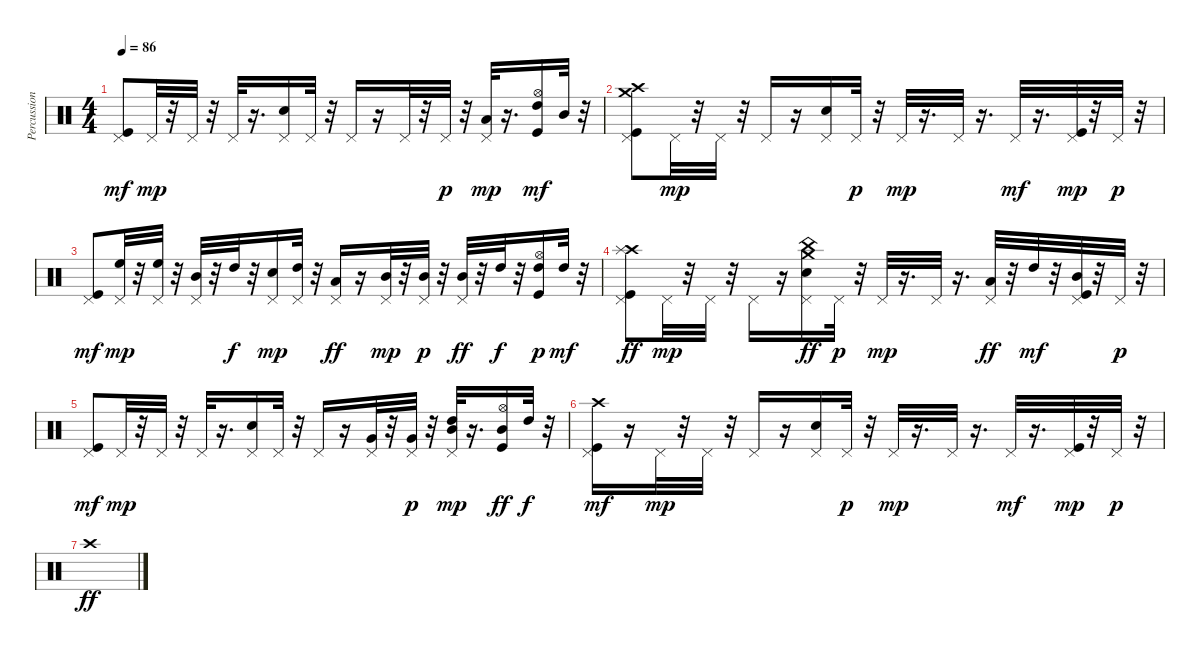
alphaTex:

\track ("Percussions" "Percussion") {instrument percussion}
\staff {score}
\articulation defaults
\ts (4 4)
\tempo 86
\clef neutral
\ks c
("Kick (hit)" "Pedal Hi-Hat (hit)").8{dy mf} "Pedal Hi-Hat (hit)".32{dy mp} r.32 "Pedal Hi-Hat (hit)".32 r.32 "Pedal Hi-Hat (hit)".32 r.16{d} ("Electric Snare (hit)" "Pedal Hi-Hat (hit)").16 "Pedal Hi-Hat (hit)".32 r.32 "Pedal Hi-Hat (hit)".16 r.16 "Pedal Hi-Hat (hit)".32 r.32 "Pedal Hi-Hat (hit)".32{dy p} r.32 ("Pedal Hi-Hat (hit)" "Low Tom (hit)").32{dy mp} r.16{d} ("Kick (hit)" "Hi-Hat (open)" "High Tom (hit)").16{dy mf} "Mid Tom (hit)".32 r.32 |
("Kick (hit)" "Pedal Hi-Hat (hit)" "Crash high (hit)" "Crash medium (hit)").8 "Pedal Hi-Hat (hit)".32{dy mp} r.32 "Pedal Hi-Hat (hit)".32 r.32 "Pedal Hi-Hat (hit)".16 r.16 ("Electric Snare (hit)" "Pedal Hi-Hat (hit)").16 "Pedal Hi-Hat (hit)".32{dy p} r.32 "Pedal Hi-Hat (hit)".32{dy mp} r.16{d} "Pedal Hi-Hat (hit)".32 r.16{d} "Pedal Hi-Hat (hit)".32{dy mf} r.16{d} ("Kick (hit)" "Pedal Hi-Hat (hit)").32{dy mp} r.32 "Pedal Hi-Hat (hit)".32{dy p} r.32 |
("Kick (hit)" "Pedal Hi-Hat (hit)").8{dy mf} ("Pedal Hi-Hat (hit)" "High Floor Tom (hit)").32{dy mp} r.32 ("High Floor Tom (hit)" "Pedal Hi-Hat (hit)").32 r.32 ("Pedal Hi-Hat (hit)" "Mid Tom (hit)").32 r.32 "High Tom (hit)".32{dy f} r.32 ("Electric Snare (hit)" "Pedal Hi-Hat (hit)").16{dy mp} ("High Tom (hit)" "Pedal Hi-Hat (hit)").32 r.32 ("Pedal Hi-Hat (hit)" "Low Tom (hit)").16{dy ff} r.16 ("Pedal Hi-Hat (hit)" "Mid Tom (hit)").32{dy mp} r.32 ("Mid Tom (hit)" "Pedal Hi-Hat (hit)").32{dy p} r.32 ("Pedal Hi-Hat (hit)" "Mid Tom (hit)").32{dy ff} r.32 "High Tom (hit)".32{dy f} r.32 ("Kick (hit)" "Hi-Hat (open)" "High Tom (hit)").16{dy p} "High Tom (hit)".32{dy mf} r.32 |
("Kick (hit)" "Pedal Hi-Hat (hit)" "Crash high (hit)" "Splash (hit)").8{dy ff} "Pedal Hi-Hat (hit)".32{dy mp} r.32 "Pedal Hi-Hat (hit)".32 r.32 "Pedal Hi-Hat (hit)".16 r.16 ("Electric Snare (hit)" "Pedal Hi-Hat (hit)" "China (hit)" "Crash medium (hit)").16{dy ff} "Pedal Hi-Hat (hit)".32{dy p} r.32 "Pedal Hi-Hat (hit)".32{dy mp} r.16{d} "Pedal Hi-Hat (hit)".32 r.16{d} ("Pedal Hi-Hat (hit)" "Low Tom (hit)").32{dy ff} r.32 "High Tom (hit)".32{dy mf} r.32 ("Kick (hit)" "Pedal Hi-Hat (hit)" "Mid Tom (hit)").32 r.32 "Pedal Hi-Hat (hit)".32{dy p} r.32 |
("Kick (hit)" "Pedal Hi-Hat (hit)").8{dy mf} "Pedal Hi-Hat (hit)".32{dy mp} r.32 "Pedal Hi-Hat (hit)".32 r.32 "Pedal Hi-Hat (hit)".32 r.16{d} ("Electric Snare (hit)" "Pedal Hi-Hat (hit)").16 "Pedal Hi-Hat (hit)".32 r.32 "Pedal Hi-Hat (hit)".16 r.16 ("Very Low Tom (hit)" "Pedal Hi-Hat (hit)").32 r.32 ("Very Low Tom (hit)" "Pedal Hi-Hat (hit)").32{dy p} r.32 ("Pedal Hi-Hat (hit)" "Mid Tom (hit)" "High Tom (hit)").32{dy mp} r.16{d} ("Kick (hit)" "Hi-Hat (open)" "Mid Tom (hit)").16{dy ff} "High Tom (hit)".32{dy f} r.32 |
("Kick (hit)" "Pedal Hi-Hat (hit)" "Crash high (hit)").16{dy mf} r.16 "Pedal Hi-Hat (hit)".32{dy mp} r.32 "Pedal Hi-Hat (hit)".32 r.32 "Pedal Hi-Hat (hit)".16 r.16 ("Electric Snare (hit)" "Pedal Hi-Hat (hit)").16 "Pedal Hi-Hat (hit)".32{dy p} r.32 "Pedal Hi-Hat (hit)".32{dy mp} r.16{d} "Pedal Hi-Hat (hit)".32 r.16{d} "Pedal Hi-Hat (hit)".32{dy mf} r.16{d} ("Kick (hit)" "Pedal Hi-Hat (hit)").32{dy mp} r.32 "Pedal Hi-Hat (hit)".32{dy p} r.32 |
"Crash high (hit)".1{dy ff}
